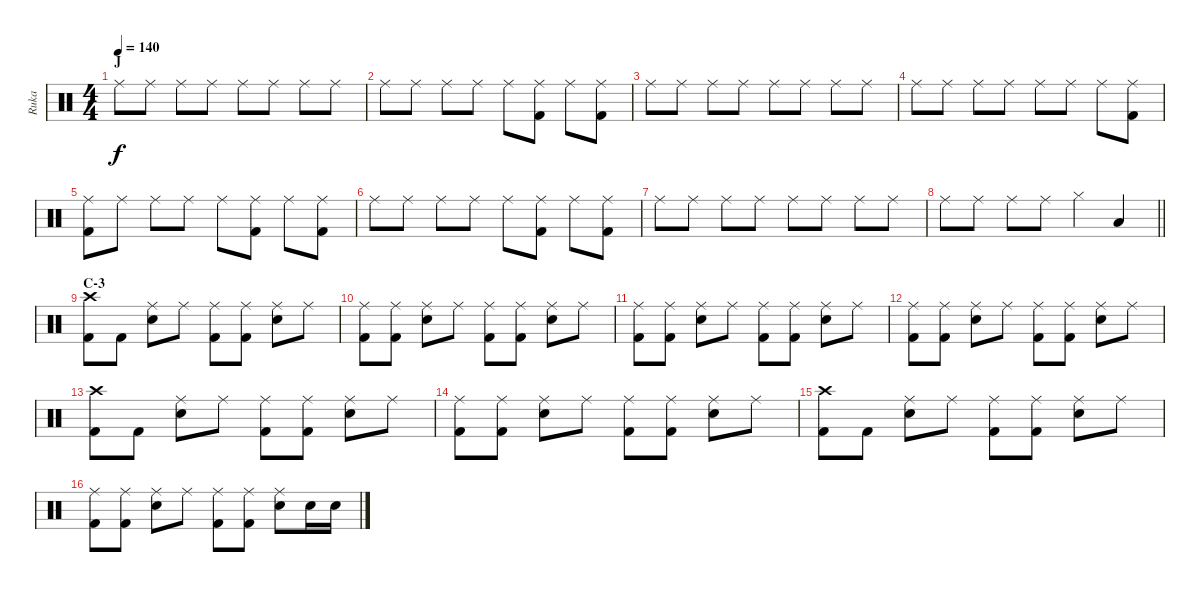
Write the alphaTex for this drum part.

\track ("Ruka" "Ruka") {instrument percussion}
\staff {score}
\articulation defaults
\ts (4 4)
\section ("" "J")
\tempo 140
\clef neutral
\ks c "Ride (middle)".8{dy f} "Ride (middle)".8 "Ride (middle)".8 "Ride (middle)".8 "Ride (middle)".8 "Ride (middle)".8 "Ride (middle)".8 "Ride (middle)".8
|
"Ride (middle)".8 "Ride (middle)".8 "Ride (middle)".8 "Ride (middle)".8 "Ride (middle)".8 ("Ride (middle)" "Kick (hit) 2").8 "Ride (middle)".8 ("Ride (middle)" "Kick (hit) 2").8 |
"Ride (middle)".8 "Ride (middle)".8 "Ride (middle)".8 "Ride (middle)".8 "Ride (middle)".8 "Ride (middle)".8 "Ride (middle)".8 "Ride (middle)".8 |
"Ride (middle)".8 "Ride (middle)".8 "Ride (middle)".8 "Ride (middle)".8 "Ride (middle)".8 "Ride (middle)".8 "Ride (middle)".8 ("Ride (middle)" "Kick (hit) 2").8 |
("Ride (middle)" "Kick (hit) 2").8 "Ride (middle)".8 "Ride (middle)".8 "Ride (middle)".8 "Ride (middle)".8 ("Ride (middle)" "Kick (hit) 2").8 "Ride (middle)".8 ("Ride (middle)" "Kick (hit) 2").8 |
"Ride (middle)".8 "Ride (middle)".8 "Ride (middle)".8 "Ride (middle)".8 "Ride (middle)".8 ("Ride (middle)" "Kick (hit) 2").8 "Ride (middle)".8 ("Ride (middle)" "Kick (hit) 2").8 |
"Ride (middle)".8 "Ride (middle)".8 "Ride (middle)".8 "Ride (middle)".8 "Ride (middle)".8 "Ride (middle)".8 "Ride (middle)".8 "Ride (middle)".8 |
\barLineRight lightlight "Ride (middle)".8 "Ride (middle)".8 "Ride (middle)".8 "Ride (middle)".8 "Hi-Hat (closed)".4 "Low Tom (hit)".4
|
\section ("" "C-3")
("Crash high (hit)" "Kick (hit) 2").8 "Kick (hit) 2".8 ("Ride (middle)" "Snare (hit) 2").8 "Ride (middle)".8 ("Ride (middle)" "Kick (hit) 2").8 ("Ride (middle)" "Kick (hit) 2").8 ("Ride (middle)" "Snare (hit) 2").8 "Ride (middle)".8 |
("Ride (middle)" "Kick (hit) 2").8 ("Ride (middle)" "Kick (hit) 2").8 ("Ride (middle)" "Snare (hit) 2").8 "Ride (middle)".8 ("Ride (middle)" "Kick (hit) 2").8 ("Ride (middle)" "Kick (hit) 2").8 ("Ride (middle)" "Snare (hit) 2").8 "Ride (middle)".8 |
("Ride (middle)" "Kick (hit) 2").8 ("Ride (middle)" "Kick (hit) 2").8 ("Ride (middle)" "Snare (hit) 2").8 "Ride (middle)".8 ("Ride (middle)" "Kick (hit) 2").8 ("Ride (middle)" "Kick (hit) 2").8 ("Ride (middle)" "Snare (hit) 2").8 "Ride (middle)".8 |
("Ride (middle)" "Kick (hit) 2").8 ("Ride (middle)" "Kick (hit) 2").8 ("Ride (middle)" "Snare (hit) 2").8 "Ride (middle)".8 ("Ride (middle)" "Kick (hit) 2").8 ("Ride (middle)" "Kick (hit) 2").8 ("Ride (middle)" "Snare (hit) 2").8 "Ride (middle)".8 |
("Crash high (hit)" "Kick (hit) 2").8 "Kick (hit) 2".8 ("Ride (middle)" "Snare (hit) 2").8 "Ride (middle)".8 ("Ride (middle)" "Kick (hit) 2").8 ("Ride (middle)" "Kick (hit) 2").8 ("Ride (middle)" "Snare (hit) 2").8 "Ride (middle)".8 |
("Ride (middle)" "Kick (hit) 2").8 ("Ride (middle)" "Kick (hit) 2").8 ("Ride (middle)" "Snare (hit) 2").8 "Ride (middle)".8 ("Ride (middle)" "Kick (hit) 2").8 ("Ride (middle)" "Kick (hit) 2").8 ("Ride (middle)" "Snare (hit) 2").8 "Ride (middle)".8 |
("Crash high (hit)" "Kick (hit) 2").8 "Kick (hit) 2".8 ("Ride (middle)" "Snare (hit) 2").8 "Ride (middle)".8 ("Ride (middle)" "Kick (hit) 2").8 ("Ride (middle)" "Kick (hit) 2").8 ("Ride (middle)" "Snare (hit) 2").8 "Ride (middle)".8 |
("Ride (middle)" "Kick (hit) 2").8 ("Ride (middle)" "Kick (hit) 2").8 ("Ride (middle)" "Snare (hit) 2").8 "Ride (middle)".8 ("Ride (middle)" "Kick (hit) 2").8 ("Ride (middle)" "Kick (hit) 2").8 ("Ride (middle)" "Snare (hit) 2").8 "Snare (hit) 2".16 "Snare (hit) 2".16
